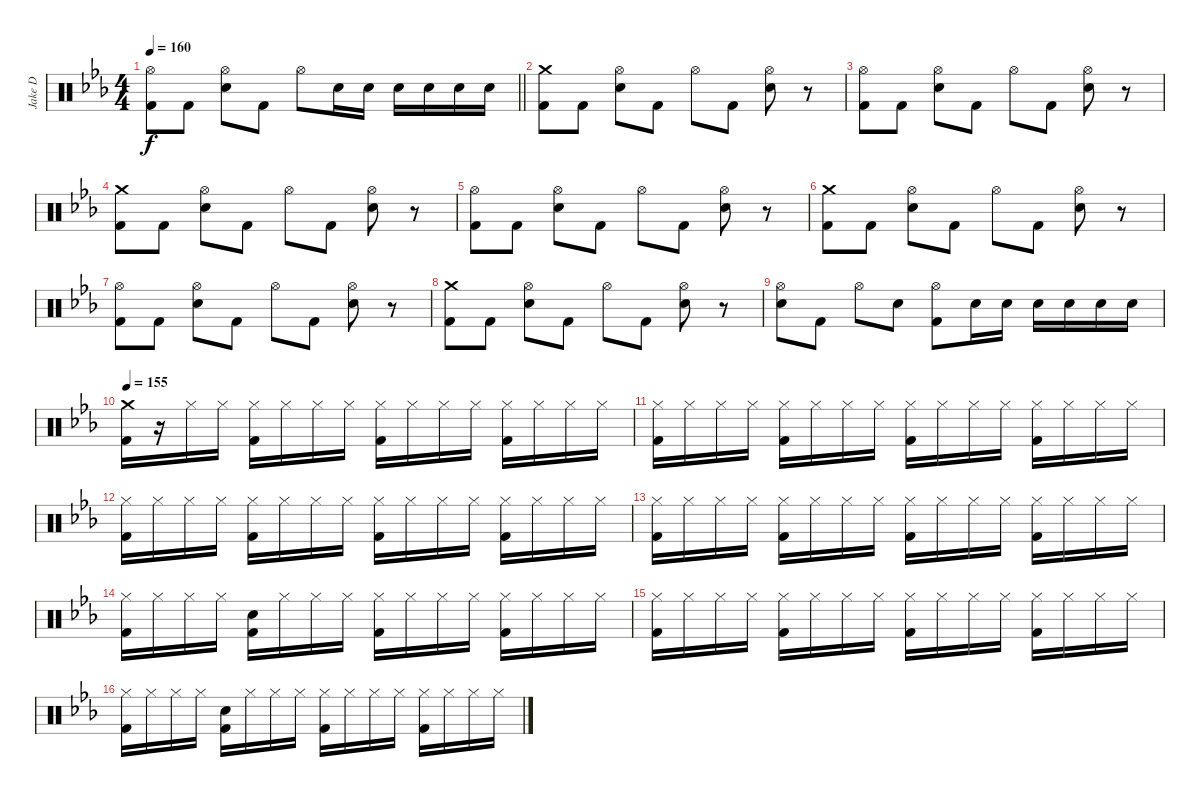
\track ("Jake D" "Jake D") {instrument percussion}
\staff {score}
\articulation defaults
\ts (4 4)
\tempo 160
\clef neutral
\barLineRight lightlight
\ks cminor
("Hi-Hat (open)" "Kick (hit) 2").8{dy f} "Kick (hit) 2".8 ("Hi-Hat (open)" "Electric Snare (hit)").8 "Kick (hit) 2".8 "Hi-Hat (open)".8 "Electric Snare (hit)".16 "Electric Snare (hit)".16 "Electric Snare (hit)".16 "Electric Snare (hit)".16 "Electric Snare (hit)".16 "Electric Snare (hit)".16 |
("Crash medium (hit)" "Kick (hit) 2").8 "Kick (hit) 2".8 ("Hi-Hat (open)" "Electric Snare (hit)").8 "Kick (hit) 2".8 "Hi-Hat (open)".8 "Kick (hit) 2".8 ("Hi-Hat (open)" "Electric Snare (hit)").8 r.8 |
("Hi-Hat (open)" "Kick (hit) 2").8 "Kick (hit) 2".8 ("Hi-Hat (open)" "Electric Snare (hit)").8 "Kick (hit) 2".8 "Hi-Hat (open)".8 "Kick (hit) 2".8 ("Hi-Hat (open)" "Electric Snare (hit)").8 r.8 |
("Crash medium (hit)" "Kick (hit) 2").8 "Kick (hit) 2".8 ("Hi-Hat (open)" "Electric Snare (hit)").8 "Kick (hit) 2".8 "Hi-Hat (open)".8 "Kick (hit) 2".8 ("Hi-Hat (open)" "Electric Snare (hit)").8 r.8 |
("Hi-Hat (open)" "Kick (hit) 2").8 "Kick (hit) 2".8 ("Hi-Hat (open)" "Electric Snare (hit)").8 "Kick (hit) 2".8 "Hi-Hat (open)".8 "Kick (hit) 2".8 ("Hi-Hat (open)" "Electric Snare (hit)").8 r.8 |
("Crash medium (hit)" "Kick (hit) 2").8 "Kick (hit) 2".8 ("Hi-Hat (open)" "Electric Snare (hit)").8 "Kick (hit) 2".8 "Hi-Hat (open)".8 "Kick (hit) 2".8 ("Hi-Hat (open)" "Electric Snare (hit)").8 r.8 |
("Hi-Hat (open)" "Kick (hit) 2").8 "Kick (hit) 2".8 ("Hi-Hat (open)" "Electric Snare (hit)").8 "Kick (hit) 2".8 "Hi-Hat (open)".8 "Kick (hit) 2".8 ("Hi-Hat (open)" "Electric Snare (hit)").8 r.8 |
("Crash medium (hit)" "Kick (hit) 2").8 "Kick (hit) 2".8 ("Hi-Hat (open)" "Electric Snare (hit)").8 "Kick (hit) 2".8 "Hi-Hat (open)".8 "Kick (hit) 2".8 ("Hi-Hat (open)" "Electric Snare (hit)").8 r.8 |
("Hi-Hat (open)" "Electric Snare (hit)").8 "Kick (hit) 2".8 "Hi-Hat (open)".8 "Electric Snare (hit)".8 ("Hi-Hat (open)" "Kick (hit) 2").8 "Electric Snare (hit)".16 "Electric Snare (hit)".16 "Electric Snare (hit)".16 "Electric Snare (hit)".16 "Electric Snare (hit)".16 "Electric Snare (hit)".16 |
\tempo 155
("Crash medium (hit)" "Kick (hit) 2").16 r.16 "Hi-Hat (closed)".16 "Hi-Hat (closed)".16 ("Hi-Hat (closed)" "Kick (hit) 2").16 "Hi-Hat (closed)".16 "Hi-Hat (closed)".16 "Hi-Hat (closed)".16 ("Hi-Hat (closed)" "Kick (hit) 2").16 "Hi-Hat (closed)".16 "Hi-Hat (closed)".16 "Hi-Hat (closed)".16 ("Hi-Hat (closed)" "Kick (hit) 2").16 "Hi-Hat (closed)".16 "Hi-Hat (closed)".16 "Hi-Hat (closed)".16 |
("Hi-Hat (closed)" "Kick (hit) 2").16 "Hi-Hat (closed)".16 "Hi-Hat (closed)".16 "Hi-Hat (closed)".16 ("Hi-Hat (closed)" "Kick (hit) 2").16 "Hi-Hat (closed)".16 "Hi-Hat (closed)".16 "Hi-Hat (closed)".16 ("Hi-Hat (closed)" "Kick (hit) 2").16 "Hi-Hat (closed)".16 "Hi-Hat (closed)".16 "Hi-Hat (closed)".16 ("Hi-Hat (closed)" "Kick (hit) 2").16 "Hi-Hat (closed)".16 "Hi-Hat (closed)".16 "Hi-Hat (closed)".16 |
("Hi-Hat (closed)" "Kick (hit) 2").16 "Hi-Hat (closed)".16 "Hi-Hat (closed)".16 "Hi-Hat (closed)".16 ("Hi-Hat (closed)" "Kick (hit) 2").16 "Hi-Hat (closed)".16 "Hi-Hat (closed)".16 "Hi-Hat (closed)".16 ("Hi-Hat (closed)" "Kick (hit) 2").16 "Hi-Hat (closed)".16 "Hi-Hat (closed)".16 "Hi-Hat (closed)".16 ("Hi-Hat (closed)" "Kick (hit) 2").16 "Hi-Hat (closed)".16 "Hi-Hat (closed)".16 "Hi-Hat (closed)".16 |
("Hi-Hat (closed)" "Kick (hit) 2").16 "Hi-Hat (closed)".16 "Hi-Hat (closed)".16 "Hi-Hat (closed)".16 ("Hi-Hat (closed)" "Kick (hit) 2").16 "Hi-Hat (closed)".16 "Hi-Hat (closed)".16 "Hi-Hat (closed)".16 ("Hi-Hat (closed)" "Kick (hit) 2").16 "Hi-Hat (closed)".16 "Hi-Hat (closed)".16 "Hi-Hat (closed)".16 ("Hi-Hat (closed)" "Kick (hit) 2").16 "Hi-Hat (closed)".16 "Hi-Hat (closed)".16 "Hi-Hat (closed)".16 |
("Hi-Hat (closed)" "Kick (hit) 2").16 "Hi-Hat (closed)".16 "Hi-Hat (closed)".16 "Hi-Hat (closed)".16 ("Electric Snare (hit)" "Kick (hit) 2").16 "Hi-Hat (closed)".16 "Hi-Hat (closed)".16 "Hi-Hat (closed)".16 ("Hi-Hat (closed)" "Kick (hit) 2").16 "Hi-Hat (closed)".16 "Hi-Hat (closed)".16 "Hi-Hat (closed)".16 ("Hi-Hat (closed)" "Kick (hit) 2").16 "Hi-Hat (closed)".16 "Hi-Hat (closed)".16 "Hi-Hat (closed)".16 |
("Hi-Hat (closed)" "Kick (hit) 2").16 "Hi-Hat (closed)".16 "Hi-Hat (closed)".16 "Hi-Hat (closed)".16 ("Hi-Hat (closed)" "Kick (hit) 2").16 "Hi-Hat (closed)".16 "Hi-Hat (closed)".16 "Hi-Hat (closed)".16 ("Hi-Hat (closed)" "Kick (hit) 2").16 "Hi-Hat (closed)".16 "Hi-Hat (closed)".16 "Hi-Hat (closed)".16 ("Hi-Hat (closed)" "Kick (hit) 2").16 "Hi-Hat (closed)".16 "Hi-Hat (closed)".16 "Hi-Hat (closed)".16 |
("Hi-Hat (closed)" "Kick (hit) 2").16 "Hi-Hat (closed)".16 "Hi-Hat (closed)".16 "Hi-Hat (closed)".16 ("Electric Snare (hit)" "Kick (hit) 2").16 "Hi-Hat (closed)".16 "Hi-Hat (closed)".16 "Hi-Hat (closed)".16 ("Hi-Hat (closed)" "Kick (hit) 2").16 "Hi-Hat (closed)".16 "Hi-Hat (closed)".16 "Hi-Hat (closed)".16 ("Hi-Hat (closed)" "Kick (hit) 2").16 "Hi-Hat (closed)".16 "Hi-Hat (closed)".16 "Hi-Hat (closed)".16
